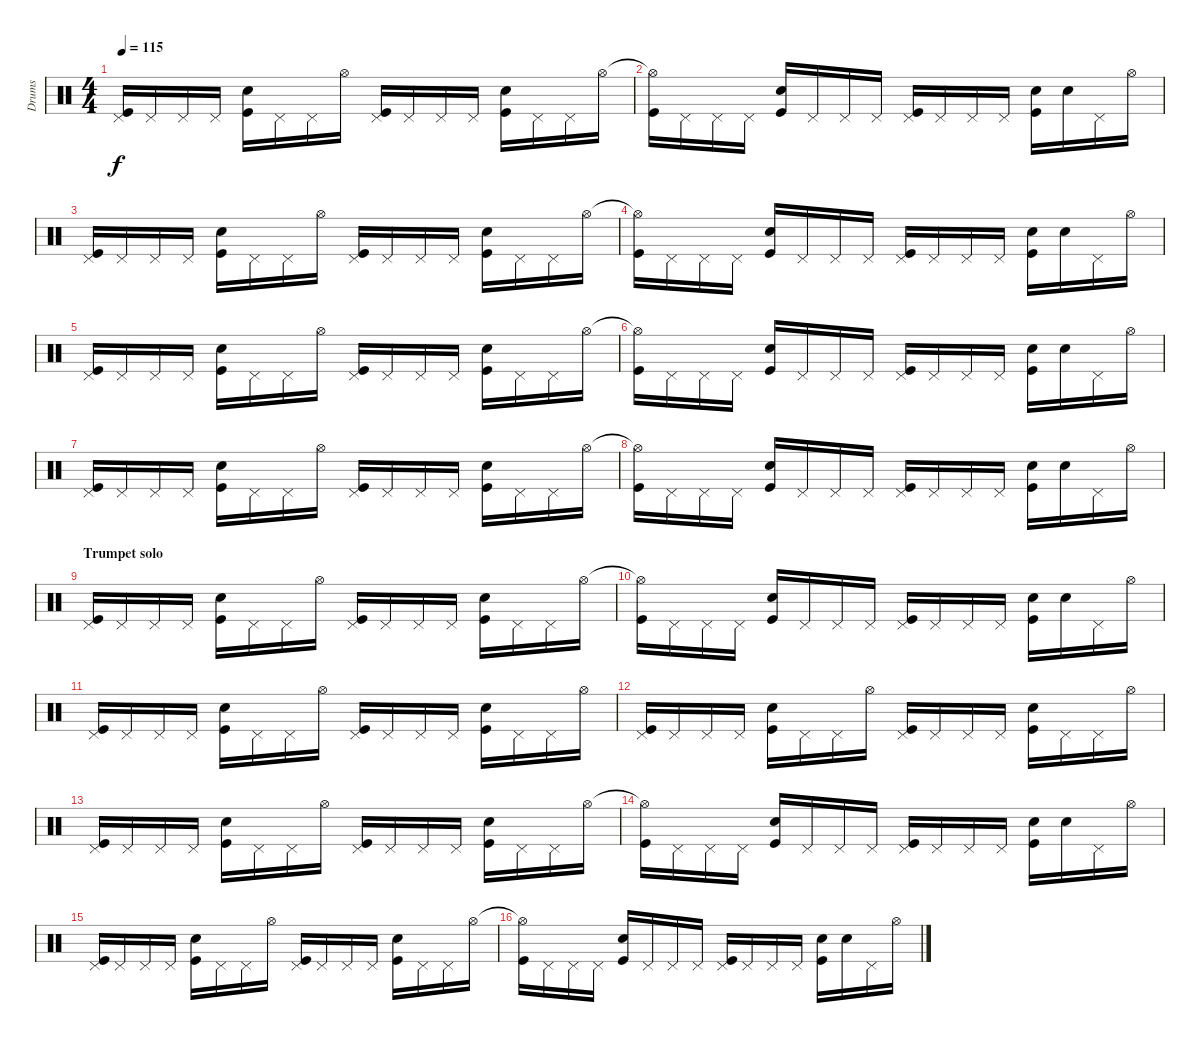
\track ("Drums" "Drums") {instrument percussion}
\staff {score}
\articulation defaults
\ts (4 4)
\tempo 115
\clef neutral
\ks c
("Pedal Hi-Hat (hit)" "Kick (hit)").16{dy f} "Pedal Hi-Hat (hit)".16 "Pedal Hi-Hat (hit)".16 "Pedal Hi-Hat (hit)".16 ("Snare (hit) 2" "Kick (hit)").16 "Pedal Hi-Hat (hit)".16 "Pedal Hi-Hat (hit)".16 "Hi-Hat (open)".16 ("Pedal Hi-Hat (hit)" "Kick (hit)").16 "Pedal Hi-Hat (hit)".16 "Pedal Hi-Hat (hit)".16 "Pedal Hi-Hat (hit)".16 ("Snare (hit) 2" "Kick (hit)").16 "Pedal Hi-Hat (hit)".16 "Pedal Hi-Hat (hit)".16 "Hi-Hat (open)".16 |
("Hi-Hat (open)"{t} "Kick (hit)").16 "Pedal Hi-Hat (hit)".16 "Pedal Hi-Hat (hit)".16 "Pedal Hi-Hat (hit)".16 ("Snare (hit) 2" "Kick (hit)").16 "Pedal Hi-Hat (hit)".16 "Pedal Hi-Hat (hit)".16 "Pedal Hi-Hat (hit)".16 ("Pedal Hi-Hat (hit)" "Kick (hit)").16 "Pedal Hi-Hat (hit)".16 "Pedal Hi-Hat (hit)".16 "Pedal Hi-Hat (hit)".16 ("Snare (hit) 2" "Kick (hit)").16 "Snare (hit) 2".16 "Pedal Hi-Hat (hit)".16 "Hi-Hat (open)".16 |
("Pedal Hi-Hat (hit)" "Kick (hit)").16 "Pedal Hi-Hat (hit)".16 "Pedal Hi-Hat (hit)".16 "Pedal Hi-Hat (hit)".16 ("Snare (hit) 2" "Kick (hit)").16 "Pedal Hi-Hat (hit)".16 "Pedal Hi-Hat (hit)".16 "Hi-Hat (open)".16 ("Pedal Hi-Hat (hit)" "Kick (hit)").16 "Pedal Hi-Hat (hit)".16 "Pedal Hi-Hat (hit)".16 "Pedal Hi-Hat (hit)".16 ("Snare (hit) 2" "Kick (hit)").16 "Pedal Hi-Hat (hit)".16 "Pedal Hi-Hat (hit)".16 "Hi-Hat (open)".16 |
("Hi-Hat (open)"{t} "Kick (hit)").16 "Pedal Hi-Hat (hit)".16 "Pedal Hi-Hat (hit)".16 "Pedal Hi-Hat (hit)".16 ("Snare (hit) 2" "Kick (hit)").16 "Pedal Hi-Hat (hit)".16 "Pedal Hi-Hat (hit)".16 "Pedal Hi-Hat (hit)".16 ("Pedal Hi-Hat (hit)" "Kick (hit)").16 "Pedal Hi-Hat (hit)".16 "Pedal Hi-Hat (hit)".16 "Pedal Hi-Hat (hit)".16 ("Snare (hit) 2" "Kick (hit)").16 "Snare (hit) 2".16 "Pedal Hi-Hat (hit)".16 "Hi-Hat (open)".16 |
("Pedal Hi-Hat (hit)" "Kick (hit)").16 "Pedal Hi-Hat (hit)".16 "Pedal Hi-Hat (hit)".16 "Pedal Hi-Hat (hit)".16 ("Snare (hit) 2" "Kick (hit)").16 "Pedal Hi-Hat (hit)".16 "Pedal Hi-Hat (hit)".16 "Hi-Hat (open)".16 ("Pedal Hi-Hat (hit)" "Kick (hit)").16 "Pedal Hi-Hat (hit)".16 "Pedal Hi-Hat (hit)".16 "Pedal Hi-Hat (hit)".16 ("Snare (hit) 2" "Kick (hit)").16 "Pedal Hi-Hat (hit)".16 "Pedal Hi-Hat (hit)".16 "Hi-Hat (open)".16 |
("Hi-Hat (open)"{t} "Kick (hit)").16 "Pedal Hi-Hat (hit)".16 "Pedal Hi-Hat (hit)".16 "Pedal Hi-Hat (hit)".16 ("Snare (hit) 2" "Kick (hit)").16 "Pedal Hi-Hat (hit)".16 "Pedal Hi-Hat (hit)".16 "Pedal Hi-Hat (hit)".16 ("Pedal Hi-Hat (hit)" "Kick (hit)").16 "Pedal Hi-Hat (hit)".16 "Pedal Hi-Hat (hit)".16 "Pedal Hi-Hat (hit)".16 ("Snare (hit) 2" "Kick (hit)").16 "Snare (hit) 2".16 "Pedal Hi-Hat (hit)".16 "Hi-Hat (open)".16 |
("Pedal Hi-Hat (hit)" "Kick (hit)").16 "Pedal Hi-Hat (hit)".16 "Pedal Hi-Hat (hit)".16 "Pedal Hi-Hat (hit)".16 ("Snare (hit) 2" "Kick (hit)").16 "Pedal Hi-Hat (hit)".16 "Pedal Hi-Hat (hit)".16 "Hi-Hat (open)".16 ("Pedal Hi-Hat (hit)" "Kick (hit)").16 "Pedal Hi-Hat (hit)".16 "Pedal Hi-Hat (hit)".16 "Pedal Hi-Hat (hit)".16 ("Snare (hit) 2" "Kick (hit)").16 "Pedal Hi-Hat (hit)".16 "Pedal Hi-Hat (hit)".16 "Hi-Hat (open)".16 |
("Hi-Hat (open)"{t} "Kick (hit)").16 "Pedal Hi-Hat (hit)".16 "Pedal Hi-Hat (hit)".16 "Pedal Hi-Hat (hit)".16 ("Snare (hit) 2" "Kick (hit)").16 "Pedal Hi-Hat (hit)".16 "Pedal Hi-Hat (hit)".16 "Pedal Hi-Hat (hit)".16 ("Pedal Hi-Hat (hit)" "Kick (hit)").16 "Pedal Hi-Hat (hit)".16 "Pedal Hi-Hat (hit)".16 "Pedal Hi-Hat (hit)".16 ("Snare (hit) 2" "Kick (hit)").16 "Snare (hit) 2".16 "Pedal Hi-Hat (hit)".16 "Hi-Hat (open)".16 |
\section ("" "Trumpet solo")
("Pedal Hi-Hat (hit)" "Kick (hit)").16 "Pedal Hi-Hat (hit)".16 "Pedal Hi-Hat (hit)".16 "Pedal Hi-Hat (hit)".16 ("Snare (hit) 2" "Kick (hit)").16 "Pedal Hi-Hat (hit)".16 "Pedal Hi-Hat (hit)".16 "Hi-Hat (open)".16 ("Pedal Hi-Hat (hit)" "Kick (hit)").16 "Pedal Hi-Hat (hit)".16 "Pedal Hi-Hat (hit)".16 "Pedal Hi-Hat (hit)".16 ("Snare (hit) 2" "Kick (hit)").16 "Pedal Hi-Hat (hit)".16 "Pedal Hi-Hat (hit)".16 "Hi-Hat (open)".16 |
("Hi-Hat (open)"{t} "Kick (hit)").16 "Pedal Hi-Hat (hit)".16 "Pedal Hi-Hat (hit)".16 "Pedal Hi-Hat (hit)".16 ("Snare (hit) 2" "Kick (hit)").16 "Pedal Hi-Hat (hit)".16 "Pedal Hi-Hat (hit)".16 "Pedal Hi-Hat (hit)".16 ("Pedal Hi-Hat (hit)" "Kick (hit)").16 "Pedal Hi-Hat (hit)".16 "Pedal Hi-Hat (hit)".16 "Pedal Hi-Hat (hit)".16 ("Snare (hit) 2" "Kick (hit)").16 "Snare (hit) 2".16 "Pedal Hi-Hat (hit)".16 "Hi-Hat (open)".16 |
("Pedal Hi-Hat (hit)" "Kick (hit)").16 "Pedal Hi-Hat (hit)".16 "Pedal Hi-Hat (hit)".16 "Pedal Hi-Hat (hit)".16 ("Snare (hit) 2" "Kick (hit)").16 "Pedal Hi-Hat (hit)".16 "Pedal Hi-Hat (hit)".16 "Hi-Hat (open)".16 ("Pedal Hi-Hat (hit)" "Kick (hit)").16 "Pedal Hi-Hat (hit)".16 "Pedal Hi-Hat (hit)".16 "Pedal Hi-Hat (hit)".16 ("Snare (hit) 2" "Kick (hit)").16 "Pedal Hi-Hat (hit)".16 "Pedal Hi-Hat (hit)".16 "Hi-Hat (open)".16 |
("Pedal Hi-Hat (hit)" "Kick (hit)").16 "Pedal Hi-Hat (hit)".16 "Pedal Hi-Hat (hit)".16 "Pedal Hi-Hat (hit)".16 ("Snare (hit) 2" "Kick (hit)").16 "Pedal Hi-Hat (hit)".16 "Pedal Hi-Hat (hit)".16 "Hi-Hat (open)".16 ("Pedal Hi-Hat (hit)" "Kick (hit)").16 "Pedal Hi-Hat (hit)".16 "Pedal Hi-Hat (hit)".16 "Pedal Hi-Hat (hit)".16 ("Snare (hit) 2" "Kick (hit)").16 "Pedal Hi-Hat (hit)".16 "Pedal Hi-Hat (hit)".16 "Hi-Hat (open)".16 |
("Pedal Hi-Hat (hit)" "Kick (hit)").16 "Pedal Hi-Hat (hit)".16 "Pedal Hi-Hat (hit)".16 "Pedal Hi-Hat (hit)".16 ("Snare (hit) 2" "Kick (hit)").16 "Pedal Hi-Hat (hit)".16 "Pedal Hi-Hat (hit)".16 "Hi-Hat (open)".16 ("Pedal Hi-Hat (hit)" "Kick (hit)").16 "Pedal Hi-Hat (hit)".16 "Pedal Hi-Hat (hit)".16 "Pedal Hi-Hat (hit)".16 ("Snare (hit) 2" "Kick (hit)").16 "Pedal Hi-Hat (hit)".16 "Pedal Hi-Hat (hit)".16 "Hi-Hat (open)".16 |
("Hi-Hat (open)"{t} "Kick (hit)").16 "Pedal Hi-Hat (hit)".16 "Pedal Hi-Hat (hit)".16 "Pedal Hi-Hat (hit)".16 ("Snare (hit) 2" "Kick (hit)").16 "Pedal Hi-Hat (hit)".16 "Pedal Hi-Hat (hit)".16 "Pedal Hi-Hat (hit)".16 ("Pedal Hi-Hat (hit)" "Kick (hit)").16 "Pedal Hi-Hat (hit)".16 "Pedal Hi-Hat (hit)".16 "Pedal Hi-Hat (hit)".16 ("Snare (hit) 2" "Kick (hit)").16 "Snare (hit) 2".16 "Pedal Hi-Hat (hit)".16 "Hi-Hat (open)".16 |
("Pedal Hi-Hat (hit)" "Kick (hit)").16 "Pedal Hi-Hat (hit)".16 "Pedal Hi-Hat (hit)".16 "Pedal Hi-Hat (hit)".16 ("Snare (hit) 2" "Kick (hit)").16 "Pedal Hi-Hat (hit)".16 "Pedal Hi-Hat (hit)".16 "Hi-Hat (open)".16 ("Pedal Hi-Hat (hit)" "Kick (hit)").16 "Pedal Hi-Hat (hit)".16 "Pedal Hi-Hat (hit)".16 "Pedal Hi-Hat (hit)".16 ("Snare (hit) 2" "Kick (hit)").16 "Pedal Hi-Hat (hit)".16 "Pedal Hi-Hat (hit)".16 "Hi-Hat (open)".16 |
("Hi-Hat (open)"{t} "Kick (hit)").16 "Pedal Hi-Hat (hit)".16 "Pedal Hi-Hat (hit)".16 "Pedal Hi-Hat (hit)".16 ("Snare (hit) 2" "Kick (hit)").16 "Pedal Hi-Hat (hit)".16 "Pedal Hi-Hat (hit)".16 "Pedal Hi-Hat (hit)".16 ("Pedal Hi-Hat (hit)" "Kick (hit)").16 "Pedal Hi-Hat (hit)".16 "Pedal Hi-Hat (hit)".16 "Pedal Hi-Hat (hit)".16 ("Snare (hit) 2" "Kick (hit)").16 "Snare (hit) 2".16 "Pedal Hi-Hat (hit)".16 "Hi-Hat (open)".16
